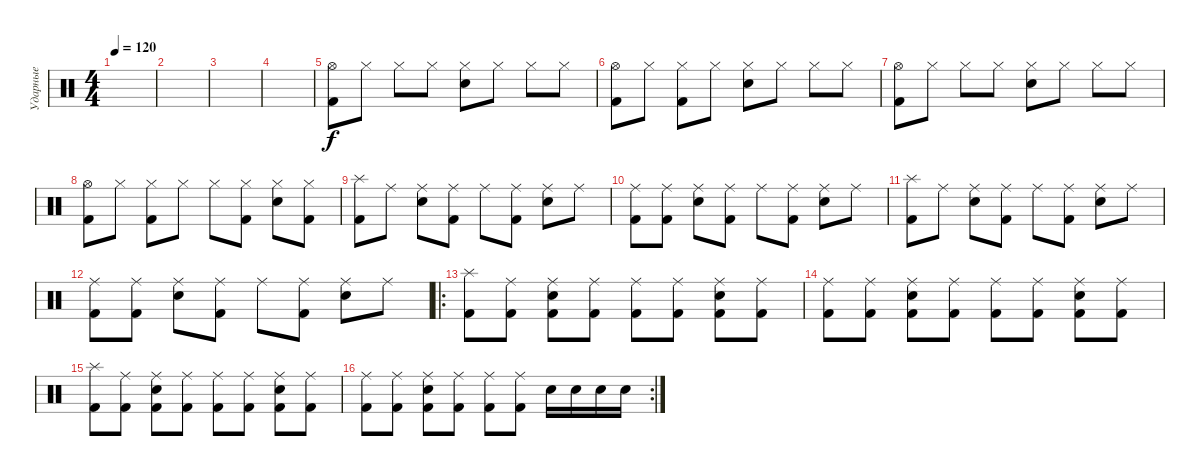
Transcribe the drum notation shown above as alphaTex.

\track ("Ударные" "Ударные") {instrument percussion}
\staff {score}
\articulation defaults
\ts (4 4)
\tempo 120
\clef neutral
\ks c
|
|
|
|
("Hi-Hat (open)" "Kick (hit) 2").8 "Hi-Hat (closed)".8 "Hi-Hat (closed)".8 "Hi-Hat (closed)".8 ("Hi-Hat (closed)" "Electric Snare (hit)").8 "Hi-Hat (closed)".8 "Hi-Hat (closed)".8 "Hi-Hat (closed)".8 |
("Hi-Hat (open)" "Kick (hit) 2").8 "Hi-Hat (closed)".8 ("Hi-Hat (closed)" "Kick (hit) 2").8 "Hi-Hat (closed)".8 ("Hi-Hat (closed)" "Electric Snare (hit)").8 "Hi-Hat (closed)".8 "Hi-Hat (closed)".8 "Hi-Hat (closed)".8 |
("Hi-Hat (open)" "Kick (hit) 2").8 "Hi-Hat (closed)".8 "Hi-Hat (closed)".8 "Hi-Hat (closed)".8 ("Hi-Hat (closed)" "Electric Snare (hit)").8 "Hi-Hat (closed)".8 "Hi-Hat (closed)".8 "Hi-Hat (closed)".8 |
("Hi-Hat (open)" "Kick (hit) 2").8 "Hi-Hat (closed)".8 ("Hi-Hat (closed)" "Kick (hit) 2").8 "Hi-Hat (closed)".8 "Hi-Hat (closed)".8 ("Hi-Hat (closed)" "Kick (hit) 2").8{volume 14} ("Hi-Hat (closed)" "Electric Snare (hit)").8 ("Hi-Hat (closed)" "Kick (hit) 2").8 |
("Splash (hit)" "Kick (hit) 2").8 "Ride (middle)".8 ("Ride (middle)" "Electric Snare (hit)").8 ("Ride (middle)" "Kick (hit) 2").8 "Ride (middle)".8 ("Ride (middle)" "Kick (hit) 2").8 ("Ride (middle)" "Electric Snare (hit)").8 "Ride (middle)".8 |
("Ride (middle)" "Kick (hit) 2").8 ("Ride (middle)" "Kick (hit) 2").8 ("Ride (middle)" "Electric Snare (hit)").8 ("Ride (middle)" "Kick (hit) 2").8 "Ride (middle)".8 ("Ride (middle)" "Kick (hit) 2").8 ("Ride (middle)" "Electric Snare (hit)").8 "Ride (middle)".8 |
("Splash (hit)" "Kick (hit) 2").8 "Ride (middle)".8 ("Ride (middle)" "Electric Snare (hit)").8 ("Ride (middle)" "Kick (hit) 2").8 "Ride (middle)".8 ("Ride (middle)" "Kick (hit) 2").8 ("Ride (middle)" "Electric Snare (hit)").8 "Ride (middle)".8 |
("Ride (middle)" "Kick (hit) 2").8 ("Ride (middle)" "Kick (hit) 2").8 ("Ride (middle)" "Electric Snare (hit)").8 ("Ride (middle)" "Kick (hit) 2").8 "Ride (middle)".8 ("Ride (middle)" "Kick (hit) 2").8 ("Ride (middle)" "Electric Snare (hit)").8 "Ride (middle)".8 |
\ro
("Splash (hit)" "Kick (hit) 2").8 ("Ride (middle)" "Kick (hit) 2").8 ("Ride (middle)" "Electric Snare (hit)" "Kick (hit) 2").8 ("Ride (middle)" "Kick (hit) 2").8 ("Ride (middle)" "Kick (hit) 2").8 ("Ride (middle)" "Kick (hit) 2").8 ("Ride (middle)" "Electric Snare (hit)" "Kick (hit) 2").8 ("Ride (middle)" "Kick (hit) 2").8 |
("Ride (middle)" "Kick (hit) 2").8 ("Ride (middle)" "Kick (hit) 2").8 ("Ride (middle)" "Electric Snare (hit)" "Kick (hit) 2").8 ("Ride (middle)" "Kick (hit) 2").8 ("Ride (middle)" "Kick (hit) 2").8 ("Ride (middle)" "Kick (hit) 2").8 ("Ride (middle)" "Electric Snare (hit)" "Kick (hit) 2").8 ("Ride (middle)" "Kick (hit) 2").8 |
("Splash (hit)" "Kick (hit) 2").8 ("Ride (middle)" "Kick (hit) 2").8 ("Ride (middle)" "Electric Snare (hit)" "Kick (hit) 2").8 ("Ride (middle)" "Kick (hit) 2").8 ("Ride (middle)" "Kick (hit) 2").8 ("Ride (middle)" "Kick (hit) 2").8 ("Ride (middle)" "Electric Snare (hit)" "Kick (hit) 2").8 ("Ride (middle)" "Kick (hit) 2").8 |
\rc 2
("Ride (middle)" "Kick (hit) 2").8 ("Ride (middle)" "Kick (hit) 2").8 ("Ride (middle)" "Electric Snare (hit)" "Kick (hit) 2").8 ("Ride (middle)" "Kick (hit) 2").8 ("Ride (middle)" "Kick (hit) 2").8 ("Ride (middle)" "Kick (hit) 2").8 "Electric Snare (hit)".16 "Electric Snare (hit)".16 "Electric Snare (hit)".16 "Electric Snare (hit)".16
